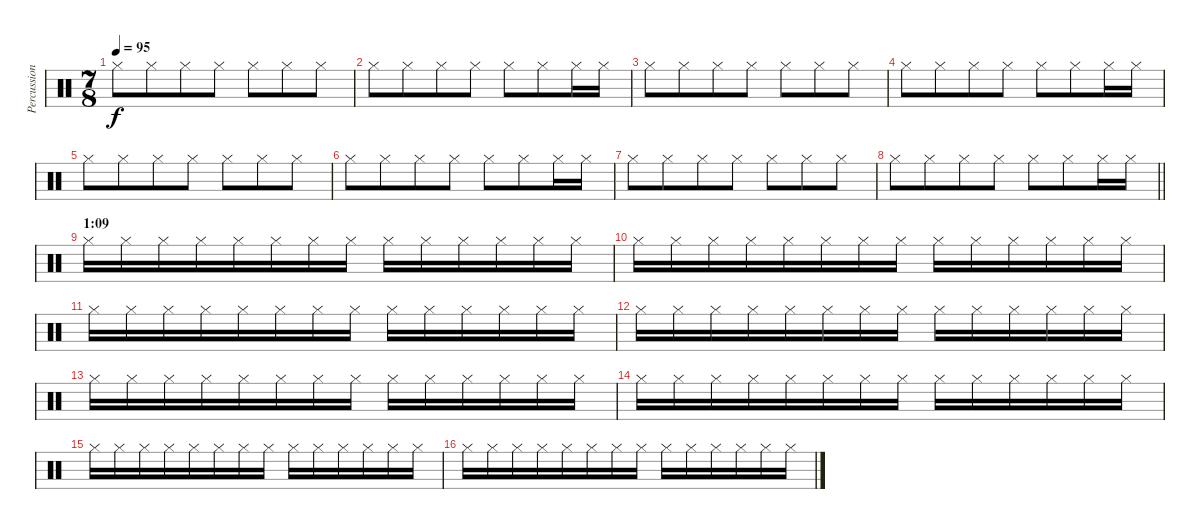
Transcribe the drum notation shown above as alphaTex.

\track ("Percussion" "Percussion") {instrument percussion}
\staff {score}
\articulation defaults
\ts (7 8)
\tempo 95
\clef neutral
\ks c "Hi-Hat (closed)".8{dy f balance 0} "Hi-Hat (closed)".8{balance 16} "Hi-Hat (closed)".8{balance 0} "Hi-Hat (closed)".8{balance 16} "Hi-Hat (closed)".8{balance 0} "Hi-Hat (closed)".8{balance 16} "Hi-Hat (closed)".8{balance 0}
|
"Hi-Hat (closed)".8{balance 0} "Hi-Hat (closed)".8{balance 16} "Hi-Hat (closed)".8{balance 0} "Hi-Hat (closed)".8{balance 16} "Hi-Hat (closed)".8{balance 0} "Hi-Hat (closed)".8{balance 16} "Hi-Hat (closed)".16{balance 0} "Hi-Hat (closed)".16 |
"Hi-Hat (closed)".8{balance 0} "Hi-Hat (closed)".8{balance 16} "Hi-Hat (closed)".8{balance 0} "Hi-Hat (closed)".8{balance 16} "Hi-Hat (closed)".8{balance 0} "Hi-Hat (closed)".8{balance 16} "Hi-Hat (closed)".8{balance 0} |
"Hi-Hat (closed)".8{balance 0} "Hi-Hat (closed)".8{balance 16} "Hi-Hat (closed)".8{balance 0} "Hi-Hat (closed)".8{balance 16} "Hi-Hat (closed)".8{balance 0} "Hi-Hat (closed)".8{balance 16} "Hi-Hat (closed)".16{balance 0} "Hi-Hat (closed)".16 |
"Hi-Hat (closed)".8{balance 0} "Hi-Hat (closed)".8{balance 16} "Hi-Hat (closed)".8{balance 0} "Hi-Hat (closed)".8{balance 16} "Hi-Hat (closed)".8{balance 0} "Hi-Hat (closed)".8{balance 16} "Hi-Hat (closed)".8{balance 0} |
"Hi-Hat (closed)".8{balance 0} "Hi-Hat (closed)".8{balance 16} "Hi-Hat (closed)".8{balance 0} "Hi-Hat (closed)".8{balance 16} "Hi-Hat (closed)".8{balance 0} "Hi-Hat (closed)".8{balance 16} "Hi-Hat (closed)".16{balance 0} "Hi-Hat (closed)".16 |
"Hi-Hat (closed)".8{balance 0} "Hi-Hat (closed)".8{balance 16} "Hi-Hat (closed)".8{balance 0} "Hi-Hat (closed)".8{balance 16} "Hi-Hat (closed)".8{balance 0} "Hi-Hat (closed)".8{balance 16} "Hi-Hat (closed)".8{balance 0} |
\barLineRight lightlight "Hi-Hat (closed)".8{balance 0} "Hi-Hat (closed)".8{balance 16} "Hi-Hat (closed)".8{balance 0} "Hi-Hat (closed)".8{balance 16} "Hi-Hat (closed)".8{balance 0} "Hi-Hat (closed)".8{balance 16} "Hi-Hat (closed)".16{balance 0} "Hi-Hat (closed)".16
|
\section ("" "1:09")
"Hi-Hat (closed)".16{balance 0} "Hi-Hat (closed)".16 "Hi-Hat (closed)".16{balance 16} "Hi-Hat (closed)".16 "Hi-Hat (closed)".16{balance 0} "Hi-Hat (closed)".16 "Hi-Hat (closed)".16{balance 16} "Hi-Hat (closed)".16 "Hi-Hat (closed)".16{balance 0} "Hi-Hat (closed)".16 "Hi-Hat (closed)".16{balance 16} "Hi-Hat (closed)".16 "Hi-Hat (closed)".16{balance 0} "Hi-Hat (closed)".16 |
"Hi-Hat (closed)".16{balance 16} "Hi-Hat (closed)".16 "Hi-Hat (closed)".16{balance 0} "Hi-Hat (closed)".16 "Hi-Hat (closed)".16{balance 16} "Hi-Hat (closed)".16 "Hi-Hat (closed)".16{balance 0} "Hi-Hat (closed)".16 "Hi-Hat (closed)".16{balance 16} "Hi-Hat (closed)".16 "Hi-Hat (closed)".16{balance 0} "Hi-Hat (closed)".16 "Hi-Hat (closed)".16{balance 16} "Hi-Hat (closed)".16 |
"Hi-Hat (closed)".16{balance 0} "Hi-Hat (closed)".16 "Hi-Hat (closed)".16{balance 16} "Hi-Hat (closed)".16 "Hi-Hat (closed)".16{balance 0} "Hi-Hat (closed)".16 "Hi-Hat (closed)".16{balance 16} "Hi-Hat (closed)".16 "Hi-Hat (closed)".16{balance 0} "Hi-Hat (closed)".16 "Hi-Hat (closed)".16{balance 16} "Hi-Hat (closed)".16 "Hi-Hat (closed)".16{balance 0} "Hi-Hat (closed)".16 |
"Hi-Hat (closed)".16{balance 16} "Hi-Hat (closed)".16 "Hi-Hat (closed)".16{balance 0} "Hi-Hat (closed)".16 "Hi-Hat (closed)".16{balance 16} "Hi-Hat (closed)".16 "Hi-Hat (closed)".16{balance 0} "Hi-Hat (closed)".16 "Hi-Hat (closed)".16{balance 16} "Hi-Hat (closed)".16 "Hi-Hat (closed)".16{balance 0} "Hi-Hat (closed)".16 "Hi-Hat (closed)".16{balance 16} "Hi-Hat (closed)".16 |
"Hi-Hat (closed)".16{balance 0} "Hi-Hat (closed)".16 "Hi-Hat (closed)".16{balance 16} "Hi-Hat (closed)".16 "Hi-Hat (closed)".16{balance 0} "Hi-Hat (closed)".16 "Hi-Hat (closed)".16{balance 16} "Hi-Hat (closed)".16 "Hi-Hat (closed)".16{balance 0} "Hi-Hat (closed)".16 "Hi-Hat (closed)".16{balance 16} "Hi-Hat (closed)".16 "Hi-Hat (closed)".16{balance 0} "Hi-Hat (closed)".16 |
"Hi-Hat (closed)".16{balance 16} "Hi-Hat (closed)".16 "Hi-Hat (closed)".16{balance 0} "Hi-Hat (closed)".16 "Hi-Hat (closed)".16{balance 16} "Hi-Hat (closed)".16 "Hi-Hat (closed)".16{balance 0} "Hi-Hat (closed)".16 "Hi-Hat (closed)".16{balance 16} "Hi-Hat (closed)".16 "Hi-Hat (closed)".16{balance 0} "Hi-Hat (closed)".16 "Hi-Hat (closed)".16{balance 16} "Hi-Hat (closed)".16 |
"Hi-Hat (closed)".16{balance 0} "Hi-Hat (closed)".16 "Hi-Hat (closed)".16{balance 16} "Hi-Hat (closed)".16 "Hi-Hat (closed)".16{balance 0} "Hi-Hat (closed)".16 "Hi-Hat (closed)".16{balance 16} "Hi-Hat (closed)".16 "Hi-Hat (closed)".16{balance 0} "Hi-Hat (closed)".16 "Hi-Hat (closed)".16{balance 16} "Hi-Hat (closed)".16 "Hi-Hat (closed)".16{balance 0} "Hi-Hat (closed)".16 |
"Hi-Hat (closed)".16{balance 16} "Hi-Hat (closed)".16 "Hi-Hat (closed)".16{balance 0} "Hi-Hat (closed)".16 "Hi-Hat (closed)".16{balance 16} "Hi-Hat (closed)".16 "Hi-Hat (closed)".16{balance 0} "Hi-Hat (closed)".16 "Hi-Hat (closed)".16{balance 16} "Hi-Hat (closed)".16 "Hi-Hat (closed)".16{balance 0} "Hi-Hat (closed)".16 "Hi-Hat (closed)".16{balance 16} "Hi-Hat (closed)".16
